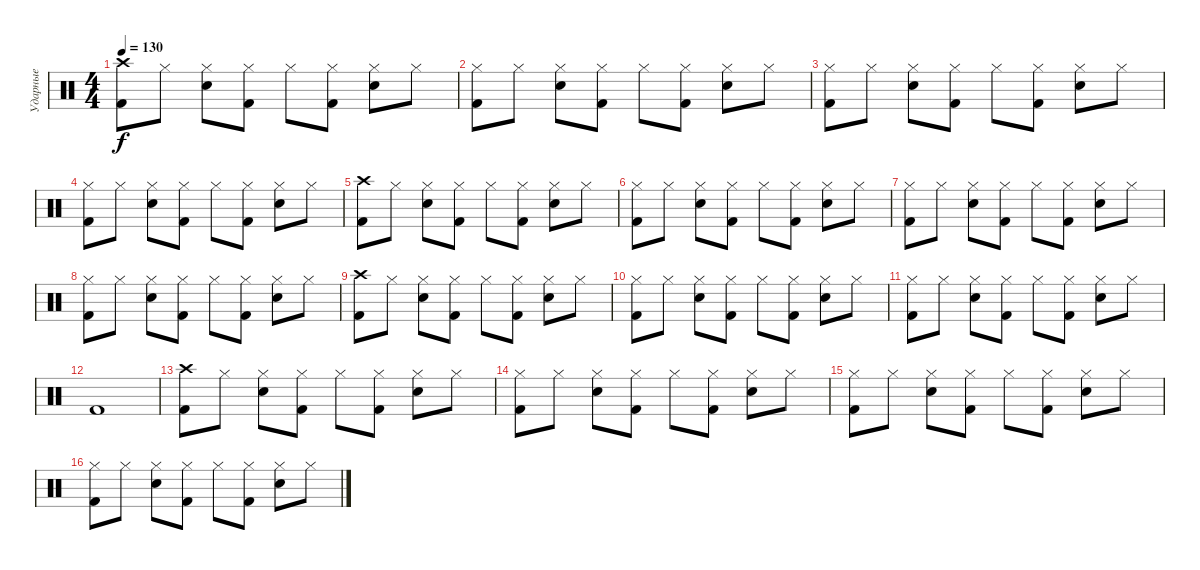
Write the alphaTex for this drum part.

\track ("Ударные" "Ударные") {instrument percussion}
\staff {score}
\articulation defaults
\ts (4 4)
\tempo 130
\clef neutral
\ks c
("Crash high (hit)" "Kick (hit) 2").8{dy f} "Hi-Hat (closed)".8 ("Hi-Hat (closed)" "Snare (hit) 2").8 ("Hi-Hat (closed)" "Kick (hit) 2").8 "Hi-Hat (closed)".8 ("Hi-Hat (closed)" "Kick (hit) 2").8 ("Hi-Hat (closed)" "Snare (hit) 2").8 "Hi-Hat (closed)".8 |
("Hi-Hat (closed)" "Kick (hit) 2").8 "Hi-Hat (closed)".8 ("Hi-Hat (closed)" "Snare (hit) 2").8 ("Hi-Hat (closed)" "Kick (hit) 2").8 "Hi-Hat (closed)".8 ("Hi-Hat (closed)" "Kick (hit) 2").8 ("Hi-Hat (closed)" "Snare (hit) 2").8 "Hi-Hat (closed)".8 |
("Hi-Hat (closed)" "Kick (hit) 2").8 "Hi-Hat (closed)".8 ("Hi-Hat (closed)" "Snare (hit) 2").8 ("Hi-Hat (closed)" "Kick (hit) 2").8 "Hi-Hat (closed)".8 ("Hi-Hat (closed)" "Kick (hit) 2").8 ("Hi-Hat (closed)" "Snare (hit) 2").8 "Hi-Hat (closed)".8 |
("Hi-Hat (closed)" "Kick (hit) 2").8 "Hi-Hat (closed)".8 ("Hi-Hat (closed)" "Snare (hit) 2").8 ("Hi-Hat (closed)" "Kick (hit) 2").8 "Hi-Hat (closed)".8 ("Hi-Hat (closed)" "Kick (hit) 2").8 ("Hi-Hat (closed)" "Snare (hit) 2").8 "Hi-Hat (closed)".8 |
("Crash high (hit)" "Kick (hit) 2").8 "Hi-Hat (closed)".8 ("Hi-Hat (closed)" "Snare (hit) 2").8 ("Hi-Hat (closed)" "Kick (hit) 2").8 "Hi-Hat (closed)".8 ("Hi-Hat (closed)" "Kick (hit) 2").8 ("Hi-Hat (closed)" "Snare (hit) 2").8 "Hi-Hat (closed)".8 |
("Hi-Hat (closed)" "Kick (hit) 2").8 "Hi-Hat (closed)".8 ("Hi-Hat (closed)" "Snare (hit) 2").8 ("Hi-Hat (closed)" "Kick (hit) 2").8 "Hi-Hat (closed)".8 ("Hi-Hat (closed)" "Kick (hit) 2").8 ("Hi-Hat (closed)" "Snare (hit) 2").8 "Hi-Hat (closed)".8 |
("Hi-Hat (closed)" "Kick (hit) 2").8 "Hi-Hat (closed)".8 ("Hi-Hat (closed)" "Snare (hit) 2").8 ("Hi-Hat (closed)" "Kick (hit) 2").8 "Hi-Hat (closed)".8 ("Hi-Hat (closed)" "Kick (hit) 2").8 ("Hi-Hat (closed)" "Snare (hit) 2").8 "Hi-Hat (closed)".8 |
("Hi-Hat (closed)" "Kick (hit) 2").8 "Hi-Hat (closed)".8 ("Hi-Hat (closed)" "Snare (hit) 2").8 ("Hi-Hat (closed)" "Kick (hit) 2").8 "Hi-Hat (closed)".8 ("Hi-Hat (closed)" "Kick (hit) 2").8 ("Hi-Hat (closed)" "Snare (hit) 2").8 "Hi-Hat (closed)".8 |
("Crash high (hit)" "Kick (hit) 2").8 "Hi-Hat (closed)".8 ("Hi-Hat (closed)" "Snare (hit) 2").8 ("Hi-Hat (closed)" "Kick (hit) 2").8 "Hi-Hat (closed)".8 ("Hi-Hat (closed)" "Kick (hit) 2").8 ("Hi-Hat (closed)" "Snare (hit) 2").8 "Hi-Hat (closed)".8 |
("Hi-Hat (closed)" "Kick (hit) 2").8 "Hi-Hat (closed)".8 ("Hi-Hat (closed)" "Snare (hit) 2").8 ("Hi-Hat (closed)" "Kick (hit) 2").8 "Hi-Hat (closed)".8 ("Hi-Hat (closed)" "Kick (hit) 2").8 ("Hi-Hat (closed)" "Snare (hit) 2").8 "Hi-Hat (closed)".8 |
("Hi-Hat (closed)" "Kick (hit) 2").8 "Hi-Hat (closed)".8 ("Hi-Hat (closed)" "Snare (hit) 2").8 ("Hi-Hat (closed)" "Kick (hit) 2").8 "Hi-Hat (closed)".8 ("Hi-Hat (closed)" "Kick (hit) 2").8 ("Hi-Hat (closed)" "Snare (hit) 2").8 "Hi-Hat (closed)".8 |
"Kick (hit) 2".1 |
("Crash high (hit)" "Kick (hit) 2").8 "Hi-Hat (closed)".8 ("Hi-Hat (closed)" "Snare (hit) 2").8 ("Hi-Hat (closed)" "Kick (hit) 2").8 "Hi-Hat (closed)".8 ("Hi-Hat (closed)" "Kick (hit) 2").8 ("Hi-Hat (closed)" "Snare (hit) 2").8 "Hi-Hat (closed)".8 |
("Hi-Hat (closed)" "Kick (hit) 2").8 "Hi-Hat (closed)".8 ("Hi-Hat (closed)" "Snare (hit) 2").8 ("Hi-Hat (closed)" "Kick (hit) 2").8 "Hi-Hat (closed)".8 ("Hi-Hat (closed)" "Kick (hit) 2").8 ("Hi-Hat (closed)" "Snare (hit) 2").8 "Hi-Hat (closed)".8 |
("Hi-Hat (closed)" "Kick (hit) 2").8 "Hi-Hat (closed)".8 ("Hi-Hat (closed)" "Snare (hit) 2").8 ("Hi-Hat (closed)" "Kick (hit) 2").8 "Hi-Hat (closed)".8 ("Hi-Hat (closed)" "Kick (hit) 2").8 ("Hi-Hat (closed)" "Snare (hit) 2").8 "Hi-Hat (closed)".8 |
("Hi-Hat (closed)" "Kick (hit) 2").8 "Hi-Hat (closed)".8 ("Hi-Hat (closed)" "Snare (hit) 2").8 ("Hi-Hat (closed)" "Kick (hit) 2").8 "Hi-Hat (closed)".8 ("Hi-Hat (closed)" "Kick (hit) 2").8 ("Hi-Hat (closed)" "Snare (hit) 2").8 "Hi-Hat (closed)".8
